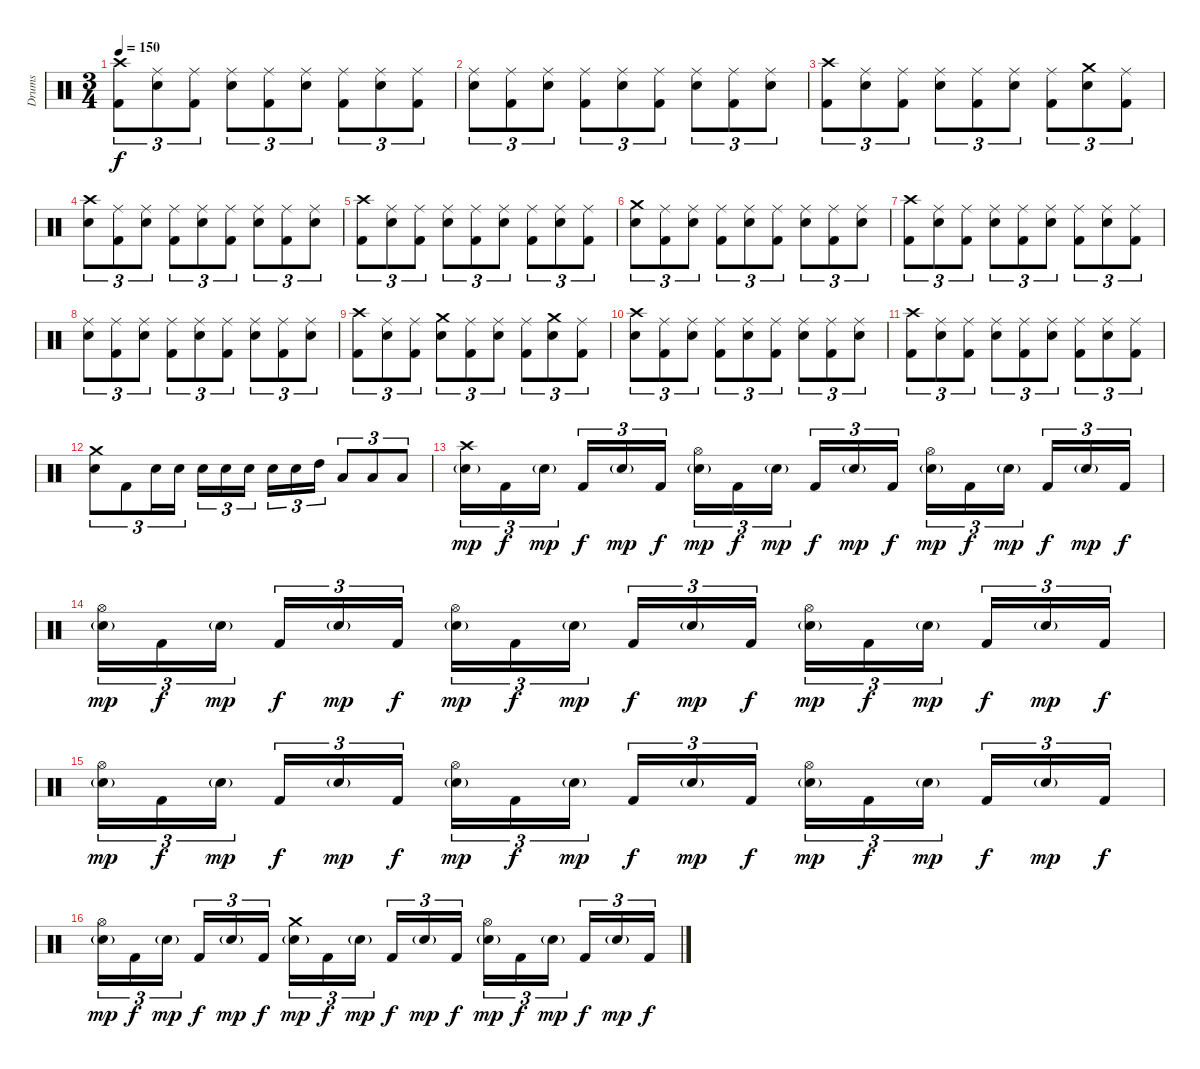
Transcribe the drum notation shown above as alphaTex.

\track ("Drums" "Drums") {instrument percussion}
\staff {score}
\articulation defaults
\ts (3 4)
\tempo 150
\clef neutral
\ks c
("Kick (hit) 2" "Crash high (hit)").8{tu (3 2) dy f} ("Electric Snare (hit)" "Ride (middle)").8{tu (3 2)} ("Kick (hit) 2" "Ride (middle)").8{tu (3 2)} ("Electric Snare (hit)" "Ride (middle)").8{tu (3 2)} ("Kick (hit) 2" "Ride (middle)").8{tu (3 2)} ("Electric Snare (hit)" "Ride (middle)").8{tu (3 2)} ("Kick (hit) 2" "Ride (middle)").8{tu (3 2)} ("Electric Snare (hit)" "Ride (middle)").8{tu (3 2)} ("Kick (hit) 2" "Ride (middle)").8{tu (3 2)} |
("Electric Snare (hit)" "Ride (middle)").8{tu (3 2)} ("Kick (hit) 2" "Ride (middle)").8{tu (3 2)} ("Electric Snare (hit)" "Ride (middle)").8{tu (3 2)} ("Kick (hit) 2" "Ride (middle)").8{tu (3 2)} ("Electric Snare (hit)" "Ride (middle)").8{tu (3 2)} ("Kick (hit) 2" "Ride (middle)").8{tu (3 2)} ("Electric Snare (hit)" "Ride (middle)").8{tu (3 2)} ("Kick (hit) 2" "Ride (middle)").8{tu (3 2)} ("Electric Snare (hit)" "Ride (middle)").8{tu (3 2)} |
("Kick (hit) 2" "Crash high (hit)").8{tu (3 2)} ("Electric Snare (hit)" "Ride (middle)").8{tu (3 2)} ("Kick (hit) 2" "Ride (middle)").8{tu (3 2)} ("Electric Snare (hit)" "Ride (middle)").8{tu (3 2)} ("Kick (hit) 2" "Ride (middle)").8{tu (3 2)} ("Electric Snare (hit)" "Ride (middle)").8{tu (3 2)} ("Kick (hit) 2" "Ride (middle)").8{tu (3 2)} ("Electric Snare (hit)" "Crash medium (hit)").8{tu (3 2)} ("Kick (hit) 2" "Ride (middle)").8{tu (3 2)} |
("Electric Snare (hit)" "Crash high (hit)").8{tu (3 2)} ("Kick (hit) 2" "Ride (middle)").8{tu (3 2)} ("Electric Snare (hit)" "Ride (middle)").8{tu (3 2)} ("Kick (hit) 2" "Ride (middle)").8{tu (3 2)} ("Electric Snare (hit)" "Ride (middle)").8{tu (3 2)} ("Kick (hit) 2" "Ride (middle)").8{tu (3 2)} ("Electric Snare (hit)" "Ride (middle)").8{tu (3 2)} ("Kick (hit) 2" "Ride (middle)").8{tu (3 2)} ("Electric Snare (hit)" "Ride (middle)").8{tu (3 2)} |
("Kick (hit) 2" "Crash high (hit)").8{tu (3 2)} ("Electric Snare (hit)" "Ride (middle)").8{tu (3 2)} ("Kick (hit) 2" "Ride (middle)").8{tu (3 2)} ("Electric Snare (hit)" "Ride (middle)").8{tu (3 2)} ("Kick (hit) 2" "Ride (middle)").8{tu (3 2)} ("Electric Snare (hit)" "Ride (middle)").8{tu (3 2)} ("Kick (hit) 2" "Ride (middle)").8{tu (3 2)} ("Electric Snare (hit)" "Ride (middle)").8{tu (3 2)} ("Kick (hit) 2" "Ride (middle)").8{tu (3 2)} |
("Electric Snare (hit)" "Crash medium (hit)").8{tu (3 2)} ("Kick (hit) 2" "Ride (middle)").8{tu (3 2)} ("Electric Snare (hit)" "Ride (middle)").8{tu (3 2)} ("Kick (hit) 2" "Ride (middle)").8{tu (3 2)} ("Electric Snare (hit)" "Ride (middle)").8{tu (3 2)} ("Kick (hit) 2" "Ride (middle)").8{tu (3 2)} ("Electric Snare (hit)" "Ride (middle)").8{tu (3 2)} ("Kick (hit) 2" "Ride (middle)").8{tu (3 2)} ("Electric Snare (hit)" "Ride (middle)").8{tu (3 2)} |
("Kick (hit) 2" "Crash high (hit)").8{tu (3 2)} ("Electric Snare (hit)" "Ride (middle)").8{tu (3 2)} ("Kick (hit) 2" "Ride (middle)").8{tu (3 2)} ("Electric Snare (hit)" "Ride (middle)").8{tu (3 2)} ("Kick (hit) 2" "Ride (middle)").8{tu (3 2)} ("Electric Snare (hit)" "Ride (middle)").8{tu (3 2)} ("Kick (hit) 2" "Ride (middle)").8{tu (3 2)} ("Electric Snare (hit)" "Ride (middle)").8{tu (3 2)} ("Kick (hit) 2" "Ride (middle)").8{tu (3 2)} |
("Electric Snare (hit)" "Ride (middle)").8{tu (3 2)} ("Kick (hit) 2" "Ride (middle)").8{tu (3 2)} ("Electric Snare (hit)" "Ride (middle)").8{tu (3 2)} ("Kick (hit) 2" "Ride (middle)").8{tu (3 2)} ("Electric Snare (hit)" "Ride (middle)").8{tu (3 2)} ("Kick (hit) 2" "Ride (middle)").8{tu (3 2)} ("Electric Snare (hit)" "Ride (middle)").8{tu (3 2)} ("Kick (hit) 2" "Ride (middle)").8{tu (3 2)} ("Electric Snare (hit)" "Ride (middle)").8{tu (3 2)} |
("Kick (hit) 2" "Crash high (hit)").8{tu (3 2)} ("Electric Snare (hit)" "Ride (middle)").8{tu (3 2)} ("Kick (hit) 2" "Ride (middle)").8{tu (3 2)} ("Electric Snare (hit)" "Crash medium (hit)").8{tu (3 2)} ("Kick (hit) 2" "Ride (middle)").8{tu (3 2)} ("Electric Snare (hit)" "Ride (middle)").8{tu (3 2)} ("Kick (hit) 2" "Ride (middle)").8{tu (3 2)} ("Electric Snare (hit)" "Crash medium (hit)").8{tu (3 2)} ("Kick (hit) 2" "Ride (middle)").8{tu (3 2)} |
("Electric Snare (hit)" "Crash high (hit)").8{tu (3 2)} ("Kick (hit) 2" "Ride (middle)").8{tu (3 2)} ("Electric Snare (hit)" "Ride (middle)").8{tu (3 2)} ("Kick (hit) 2" "Ride (middle)").8{tu (3 2)} ("Electric Snare (hit)" "Ride (middle)").8{tu (3 2)} ("Kick (hit) 2" "Ride (middle)").8{tu (3 2)} ("Electric Snare (hit)" "Ride (middle)").8{tu (3 2)} ("Kick (hit) 2" "Ride (middle)").8{tu (3 2)} ("Electric Snare (hit)" "Ride (middle)").8{tu (3 2)} |
("Kick (hit) 2" "Crash high (hit)").8{tu (3 2)} ("Electric Snare (hit)" "Ride (middle)").8{tu (3 2)} ("Kick (hit) 2" "Ride (middle)").8{tu (3 2)} ("Electric Snare (hit)" "Ride (middle)").8{tu (3 2)} ("Kick (hit) 2" "Ride (middle)").8{tu (3 2)} ("Electric Snare (hit)" "Ride (middle)").8{tu (3 2)} ("Kick (hit) 2" "Ride (middle)").8{tu (3 2)} ("Electric Snare (hit)" "Ride (middle)").8{tu (3 2)} ("Kick (hit) 2" "Ride (middle)").8{tu (3 2)} |
("Electric Snare (hit)" "Crash medium (hit)").8{tu (3 2)} "Kick (hit) 2".8{tu (3 2)} "Electric Snare (hit)".16{tu (3 2)} "Electric Snare (hit)".16{tu (3 2)} "Electric Snare (hit)".16{tu (3 2)} "Electric Snare (hit)".16{tu (3 2)} "Electric Snare (hit)".16{tu (3 2) beam splitsecondary} "Electric Snare (hit)".16{tu (3 2)} "Electric Snare (hit)".16{tu (3 2)} "High Tom (hit)".16{tu (3 2)} "Low Tom (hit)".8{tu (3 2)} "Low Tom (hit)".8{tu (3 2)} "Low Floor Tom (hit)".8{tu (3 2)} |
("Electric Snare (hit)"{g} "Crash high (hit)").16{tu (3 2) dy mp} "Kick (hit) 2".16{tu (3 2) dy f} "Electric Snare (hit)"{g}.16{tu (3 2) dy mp beam splitsecondary} "Kick (hit) 2".16{tu (3 2) dy f} "Electric Snare (hit)"{g}.16{tu (3 2) dy mp} "Kick (hit) 2".16{tu (3 2) dy f} ("Electric Snare (hit)"{g} "Hi-Hat (open)").16{tu (3 2) dy mp} "Kick (hit) 2".16{tu (3 2) dy f} "Electric Snare (hit)"{g}.16{tu (3 2) dy mp beam splitsecondary} "Kick (hit) 2".16{tu (3 2) dy f} "Electric Snare (hit)"{g}.16{tu (3 2) dy mp} "Kick (hit) 2".16{tu (3 2) dy f} ("Electric Snare (hit)"{g} "Hi-Hat (open)").16{tu (3 2) dy mp} "Kick (hit) 2".16{tu (3 2) dy f} "Electric Snare (hit)"{g}.16{tu (3 2) dy mp beam splitsecondary} "Kick (hit) 2".16{tu (3 2) dy f} "Electric Snare (hit)"{g}.16{tu (3 2) dy mp} "Kick (hit) 2".16{tu (3 2) dy f} |
("Electric Snare (hit)"{g} "Hi-Hat (open)").16{tu (3 2) dy mp} "Kick (hit) 2".16{tu (3 2) dy f} "Electric Snare (hit)"{g}.16{tu (3 2) dy mp beam splitsecondary} "Kick (hit) 2".16{tu (3 2) dy f} "Electric Snare (hit)"{g}.16{tu (3 2) dy mp} "Kick (hit) 2".16{tu (3 2) dy f} ("Electric Snare (hit)"{g} "Hi-Hat (open)").16{tu (3 2) dy mp} "Kick (hit) 2".16{tu (3 2) dy f} "Electric Snare (hit)"{g}.16{tu (3 2) dy mp beam splitsecondary} "Kick (hit) 2".16{tu (3 2) dy f} "Electric Snare (hit)"{g}.16{tu (3 2) dy mp} "Kick (hit) 2".16{tu (3 2) dy f} ("Electric Snare (hit)"{g} "Hi-Hat (open)").16{tu (3 2) dy mp} "Kick (hit) 2".16{tu (3 2) dy f} "Electric Snare (hit)"{g}.16{tu (3 2) dy mp beam splitsecondary} "Kick (hit) 2".16{tu (3 2) dy f} "Electric Snare (hit)"{g}.16{tu (3 2) dy mp} "Kick (hit) 2".16{tu (3 2) dy f} |
("Electric Snare (hit)"{g} "Hi-Hat (open)").16{tu (3 2) dy mp} "Kick (hit) 2".16{tu (3 2) dy f} "Electric Snare (hit)"{g}.16{tu (3 2) dy mp beam splitsecondary} "Kick (hit) 2".16{tu (3 2) dy f} "Electric Snare (hit)"{g}.16{tu (3 2) dy mp} "Kick (hit) 2".16{tu (3 2) dy f} ("Electric Snare (hit)"{g} "Hi-Hat (open)").16{tu (3 2) dy mp} "Kick (hit) 2".16{tu (3 2) dy f} "Electric Snare (hit)"{g}.16{tu (3 2) dy mp beam splitsecondary} "Kick (hit) 2".16{tu (3 2) dy f} "Electric Snare (hit)"{g}.16{tu (3 2) dy mp} "Kick (hit) 2".16{tu (3 2) dy f} ("Electric Snare (hit)"{g} "Hi-Hat (open)").16{tu (3 2) dy mp} "Kick (hit) 2".16{tu (3 2) dy f} "Electric Snare (hit)"{g}.16{tu (3 2) dy mp beam splitsecondary} "Kick (hit) 2".16{tu (3 2) dy f} "Electric Snare (hit)"{g}.16{tu (3 2) dy mp} "Kick (hit) 2".16{tu (3 2) dy f} |
("Electric Snare (hit)"{g} "Hi-Hat (open)").16{tu (3 2) dy mp} "Kick (hit) 2".16{tu (3 2) dy f} "Electric Snare (hit)"{g}.16{tu (3 2) dy mp beam splitsecondary} "Kick (hit) 2".16{tu (3 2) dy f} "Electric Snare (hit)"{g}.16{tu (3 2) dy mp} "Kick (hit) 2".16{tu (3 2) dy f} ("Electric Snare (hit)"{g} "Crash medium (hit)").16{tu (3 2) dy mp} "Kick (hit) 2".16{tu (3 2) dy f} "Electric Snare (hit)"{g}.16{tu (3 2) dy mp beam splitsecondary} "Kick (hit) 2".16{tu (3 2) dy f} "Electric Snare (hit)"{g}.16{tu (3 2) dy mp} "Kick (hit) 2".16{tu (3 2) dy f} ("Electric Snare (hit)"{g} "Hi-Hat (open)").16{tu (3 2) dy mp} "Kick (hit) 2".16{tu (3 2) dy f} "Electric Snare (hit)"{g}.16{tu (3 2) dy mp beam splitsecondary} "Kick (hit) 2".16{tu (3 2) dy f} "Electric Snare (hit)"{g}.16{tu (3 2) dy mp} "Kick (hit) 2".16{tu (3 2) dy f}
